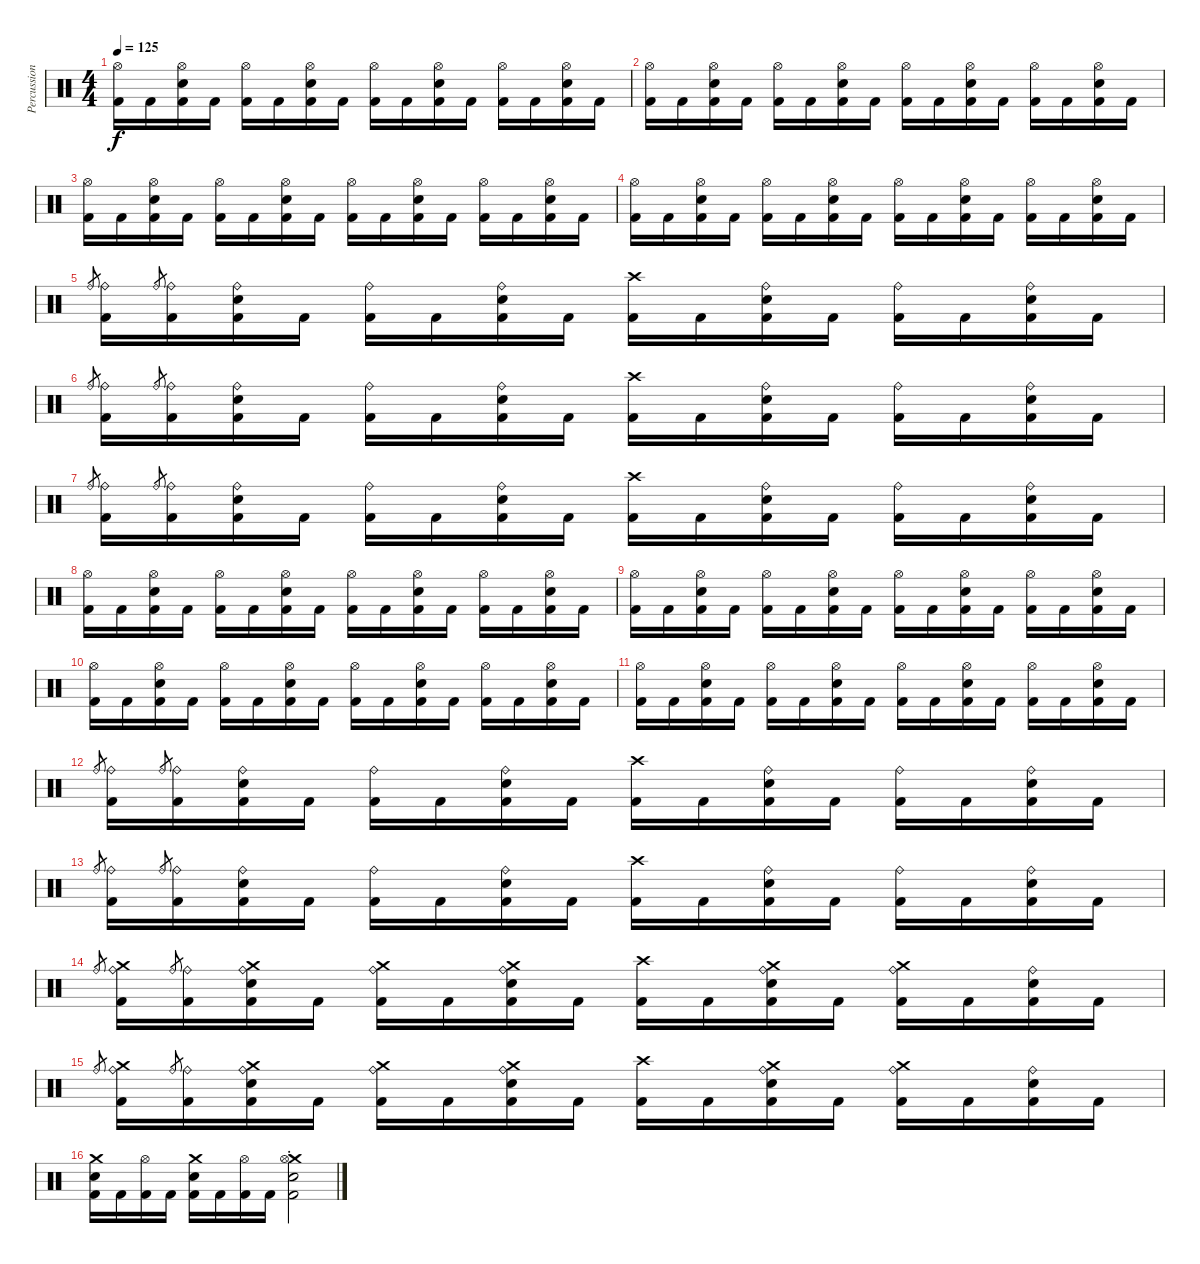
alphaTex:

\track ("Percussion" "Percussion") {instrument percussion}
\staff {score}
\articulation defaults
\ts (4 4)
\tempo 125
\clef neutral
\ks c
("Hi-Hat (open)" "Kick (hit) 2").16{dy f} "Kick (hit) 2".16 ("Hi-Hat (open)" "Snare (hit) 2" "Kick (hit) 2").16 "Kick (hit) 2".16 ("Hi-Hat (open)" "Kick (hit) 2").16 "Kick (hit) 2".16 ("Hi-Hat (open)" "Snare (hit) 2" "Kick (hit) 2").16 "Kick (hit) 2".16 ("Hi-Hat (open)" "Kick (hit) 2").16 "Kick (hit) 2".16 ("Hi-Hat (open)" "Snare (hit) 2" "Kick (hit) 2").16 "Kick (hit) 2".16 ("Hi-Hat (open)" "Kick (hit) 2").16 "Kick (hit) 2".16 ("Hi-Hat (open)" "Snare (hit) 2" "Kick (hit) 2").16 "Kick (hit) 2".16 |
("Hi-Hat (open)" "Kick (hit) 2").16 "Kick (hit) 2".16 ("Hi-Hat (open)" "Snare (hit) 2" "Kick (hit) 2").16 "Kick (hit) 2".16 ("Hi-Hat (open)" "Kick (hit) 2").16 "Kick (hit) 2".16 ("Hi-Hat (open)" "Snare (hit) 2" "Kick (hit) 2").16 "Kick (hit) 2".16 ("Hi-Hat (open)" "Kick (hit) 2").16 "Kick (hit) 2".16 ("Hi-Hat (open)" "Snare (hit) 2" "Kick (hit) 2").16 "Kick (hit) 2".16 ("Hi-Hat (open)" "Kick (hit) 2").16 "Kick (hit) 2".16 ("Hi-Hat (open)" "Snare (hit) 2" "Kick (hit) 2").16 "Kick (hit) 2".16 |
("Hi-Hat (open)" "Kick (hit) 2").16 "Kick (hit) 2".16 ("Hi-Hat (open)" "Snare (hit) 2" "Kick (hit) 2").16 "Kick (hit) 2".16 ("Hi-Hat (open)" "Kick (hit) 2").16 "Kick (hit) 2".16 ("Hi-Hat (open)" "Snare (hit) 2" "Kick (hit) 2").16 "Kick (hit) 2".16 ("Hi-Hat (open)" "Kick (hit) 2").16 "Kick (hit) 2".16 ("Hi-Hat (open)" "Snare (hit) 2" "Kick (hit) 2").16 "Kick (hit) 2".16 ("Hi-Hat (open)" "Kick (hit) 2").16 "Kick (hit) 2".16 ("Hi-Hat (open)" "Snare (hit) 2" "Kick (hit) 2").16 "Kick (hit) 2".16 |
("Hi-Hat (open)" "Kick (hit) 2").16 "Kick (hit) 2".16 ("Hi-Hat (open)" "Snare (hit) 2" "Kick (hit) 2").16 "Kick (hit) 2".16 ("Hi-Hat (open)" "Kick (hit) 2").16 "Kick (hit) 2".16 ("Hi-Hat (open)" "Snare (hit) 2" "Kick (hit) 2").16 "Kick (hit) 2".16 ("Hi-Hat (open)" "Kick (hit) 2").16 "Kick (hit) 2".16 ("Hi-Hat (open)" "Snare (hit) 2" "Kick (hit) 2").16 "Kick (hit) 2".16 ("Hi-Hat (open)" "Kick (hit) 2").16 "Kick (hit) 2".16 ("Hi-Hat (open)" "Snare (hit) 2" "Kick (hit) 2").16 "Kick (hit) 2".16 |
"Ride (bell)".8{gr} ("Ride (bell)" "Kick (hit) 2").16 "Ride (bell)".8{gr} ("Ride (bell)" "Kick (hit) 2").16 ("Ride (bell)" "Snare (hit) 2" "Kick (hit) 2").16 "Kick (hit) 2".16 ("Ride (bell)" "Kick (hit) 2").16 "Kick (hit) 2".16 ("Ride (bell)" "Snare (hit) 2" "Kick (hit) 2").16 "Kick (hit) 2".16 ("Crash high (hit)" "Kick (hit) 2").16 "Kick (hit) 2".16 ("Ride (bell)" "Snare (hit) 2" "Kick (hit) 2").16 "Kick (hit) 2".16 ("Ride (bell)" "Kick (hit) 2").16 "Kick (hit) 2".16 ("Ride (bell)" "Snare (hit) 2" "Kick (hit) 2").16 "Kick (hit) 2".16 |
"Ride (bell)".8{gr} ("Ride (bell)" "Kick (hit) 2").16 "Ride (bell)".8{gr} ("Ride (bell)" "Kick (hit) 2").16 ("Ride (bell)" "Snare (hit) 2" "Kick (hit) 2").16 "Kick (hit) 2".16 ("Ride (bell)" "Kick (hit) 2").16 "Kick (hit) 2".16 ("Ride (bell)" "Snare (hit) 2" "Kick (hit) 2").16 "Kick (hit) 2".16 ("Crash high (hit)" "Kick (hit) 2").16 "Kick (hit) 2".16 ("Ride (bell)" "Snare (hit) 2" "Kick (hit) 2").16 "Kick (hit) 2".16 ("Ride (bell)" "Kick (hit) 2").16 "Kick (hit) 2".16 ("Ride (bell)" "Snare (hit) 2" "Kick (hit) 2").16 "Kick (hit) 2".16 |
"Ride (bell)".8{gr} ("Ride (bell)" "Kick (hit) 2").16 "Ride (bell)".8{gr} ("Ride (bell)" "Kick (hit) 2").16 ("Ride (bell)" "Snare (hit) 2" "Kick (hit) 2").16 "Kick (hit) 2".16 ("Ride (bell)" "Kick (hit) 2").16 "Kick (hit) 2".16 ("Ride (bell)" "Snare (hit) 2" "Kick (hit) 2").16 "Kick (hit) 2".16 ("Crash high (hit)" "Kick (hit) 2").16 "Kick (hit) 2".16 ("Ride (bell)" "Snare (hit) 2" "Kick (hit) 2").16 "Kick (hit) 2".16 ("Ride (bell)" "Kick (hit) 2").16 "Kick (hit) 2".16 ("Ride (bell)" "Snare (hit) 2" "Kick (hit) 2").16 "Kick (hit) 2".16 |
("Hi-Hat (open)" "Kick (hit) 2").16 "Kick (hit) 2".16 ("Hi-Hat (open)" "Snare (hit) 2" "Kick (hit) 2").16 "Kick (hit) 2".16 ("Hi-Hat (open)" "Kick (hit) 2").16 "Kick (hit) 2".16 ("Hi-Hat (open)" "Snare (hit) 2" "Kick (hit) 2").16 "Kick (hit) 2".16 ("Hi-Hat (open)" "Kick (hit) 2").16 "Kick (hit) 2".16 ("Hi-Hat (open)" "Snare (hit) 2" "Kick (hit) 2").16 "Kick (hit) 2".16 ("Hi-Hat (open)" "Kick (hit) 2").16 "Kick (hit) 2".16 ("Hi-Hat (open)" "Snare (hit) 2" "Kick (hit) 2").16 "Kick (hit) 2".16 |
("Hi-Hat (open)" "Kick (hit) 2").16 "Kick (hit) 2".16 ("Hi-Hat (open)" "Snare (hit) 2" "Kick (hit) 2").16 "Kick (hit) 2".16 ("Hi-Hat (open)" "Kick (hit) 2").16 "Kick (hit) 2".16 ("Hi-Hat (open)" "Snare (hit) 2" "Kick (hit) 2").16 "Kick (hit) 2".16 ("Hi-Hat (open)" "Kick (hit) 2").16 "Kick (hit) 2".16 ("Hi-Hat (open)" "Snare (hit) 2" "Kick (hit) 2").16 "Kick (hit) 2".16 ("Hi-Hat (open)" "Kick (hit) 2").16 "Kick (hit) 2".16 ("Hi-Hat (open)" "Snare (hit) 2" "Kick (hit) 2").16 "Kick (hit) 2".16 |
("Hi-Hat (open)" "Kick (hit) 2").16 "Kick (hit) 2".16 ("Hi-Hat (open)" "Snare (hit) 2" "Kick (hit) 2").16 "Kick (hit) 2".16 ("Hi-Hat (open)" "Kick (hit) 2").16 "Kick (hit) 2".16 ("Hi-Hat (open)" "Snare (hit) 2" "Kick (hit) 2").16 "Kick (hit) 2".16 ("Hi-Hat (open)" "Kick (hit) 2").16 "Kick (hit) 2".16 ("Hi-Hat (open)" "Snare (hit) 2" "Kick (hit) 2").16 "Kick (hit) 2".16 ("Hi-Hat (open)" "Kick (hit) 2").16 "Kick (hit) 2".16 ("Hi-Hat (open)" "Snare (hit) 2" "Kick (hit) 2").16 "Kick (hit) 2".16 |
("Hi-Hat (open)" "Kick (hit) 2").16 "Kick (hit) 2".16 ("Hi-Hat (open)" "Snare (hit) 2" "Kick (hit) 2").16 "Kick (hit) 2".16 ("Hi-Hat (open)" "Kick (hit) 2").16 "Kick (hit) 2".16 ("Hi-Hat (open)" "Snare (hit) 2" "Kick (hit) 2").16 "Kick (hit) 2".16 ("Hi-Hat (open)" "Kick (hit) 2").16 "Kick (hit) 2".16 ("Hi-Hat (open)" "Snare (hit) 2" "Kick (hit) 2").16 "Kick (hit) 2".16 ("Hi-Hat (open)" "Kick (hit) 2").16 "Kick (hit) 2".16 ("Hi-Hat (open)" "Snare (hit) 2" "Kick (hit) 2").16 "Kick (hit) 2".16 |
"Ride (bell)".8{gr} ("Ride (bell)" "Kick (hit) 2").16 "Ride (bell)".8{gr} ("Ride (bell)" "Kick (hit) 2").16 ("Ride (bell)" "Snare (hit) 2" "Kick (hit) 2").16 "Kick (hit) 2".16 ("Ride (bell)" "Kick (hit) 2").16 "Kick (hit) 2".16 ("Ride (bell)" "Snare (hit) 2" "Kick (hit) 2").16 "Kick (hit) 2".16 ("Crash high (hit)" "Kick (hit) 2").16 "Kick (hit) 2".16 ("Ride (bell)" "Snare (hit) 2" "Kick (hit) 2").16 "Kick (hit) 2".16 ("Ride (bell)" "Kick (hit) 2").16 "Kick (hit) 2".16 ("Ride (bell)" "Snare (hit) 2" "Kick (hit) 2").16 "Kick (hit) 2".16 |
"Ride (bell)".8{gr} ("Ride (bell)" "Kick (hit) 2").16 "Ride (bell)".8{gr} ("Ride (bell)" "Kick (hit) 2").16 ("Ride (bell)" "Snare (hit) 2" "Kick (hit) 2").16 "Kick (hit) 2".16 ("Ride (bell)" "Kick (hit) 2").16 "Kick (hit) 2".16 ("Ride (bell)" "Snare (hit) 2" "Kick (hit) 2").16 "Kick (hit) 2".16 ("Crash high (hit)" "Kick (hit) 2").16 "Kick (hit) 2".16 ("Ride (bell)" "Snare (hit) 2" "Kick (hit) 2").16 "Kick (hit) 2".16 ("Ride (bell)" "Kick (hit) 2").16 "Kick (hit) 2".16 ("Ride (bell)" "Snare (hit) 2" "Kick (hit) 2").16 "Kick (hit) 2".16 |
"Ride (bell)".8{gr} ("Ride (bell)" "Crash medium (hit)" "Kick (hit) 2").16 "Ride (bell)".8{gr} ("Ride (bell)" "Kick (hit) 2").16 ("Ride (bell)" "Crash medium (hit)" "Snare (hit) 2" "Kick (hit) 2").16 "Kick (hit) 2".16 ("Ride (bell)" "Crash medium (hit)" "Kick (hit) 2").16 "Kick (hit) 2".16 ("Ride (bell)" "Crash medium (hit)" "Snare (hit) 2" "Kick (hit) 2").16 "Kick (hit) 2".16 ("Crash high (hit)" "Kick (hit) 2").16 "Kick (hit) 2".16 ("Ride (bell)" "Crash medium (hit)" "Snare (hit) 2" "Kick (hit) 2").16 "Kick (hit) 2".16 ("Ride (bell)" "Crash medium (hit)" "Kick (hit) 2").16 "Kick (hit) 2".16 ("Ride (bell)" "Snare (hit) 2" "Kick (hit) 2").16 "Kick (hit) 2".16 |
"Ride (bell)".8{gr} ("Ride (bell)" "Crash medium (hit)" "Kick (hit) 2").16 "Ride (bell)".8{gr} ("Ride (bell)" "Kick (hit) 2").16 ("Ride (bell)" "Crash medium (hit)" "Snare (hit) 2" "Kick (hit) 2").16 "Kick (hit) 2".16 ("Ride (bell)" "Crash medium (hit)" "Kick (hit) 2").16 "Kick (hit) 2".16 ("Ride (bell)" "Crash medium (hit)" "Snare (hit) 2" "Kick (hit) 2").16 "Kick (hit) 2".16 ("Crash high (hit)" "Kick (hit) 2").16 "Kick (hit) 2".16 ("Ride (bell)" "Crash medium (hit)" "Snare (hit) 2" "Kick (hit) 2").16 "Kick (hit) 2".16 ("Ride (bell)" "Crash medium (hit)" "Kick (hit) 2").16 "Kick (hit) 2".16 ("Ride (bell)" "Snare (hit) 2" "Kick (hit) 2").16 "Kick (hit) 2".16 |
("Crash medium (hit)" "Snare (hit) 2" "Kick (hit) 2").16 "Kick (hit) 2".16 ("Hi-Hat (open)" "Kick (hit) 2").16 "Kick (hit) 2".16 ("Crash medium (hit)" "Snare (hit) 2" "Kick (hit) 2").16 "Kick (hit) 2".16 ("Hi-Hat (open)" "Kick (hit) 2").16 "Kick (hit) 2".16 ("Crash medium (hit)"{st} "Kick (hit) 2"{st} "Snare (hit) 2" "Hi-Hat (open)").2
